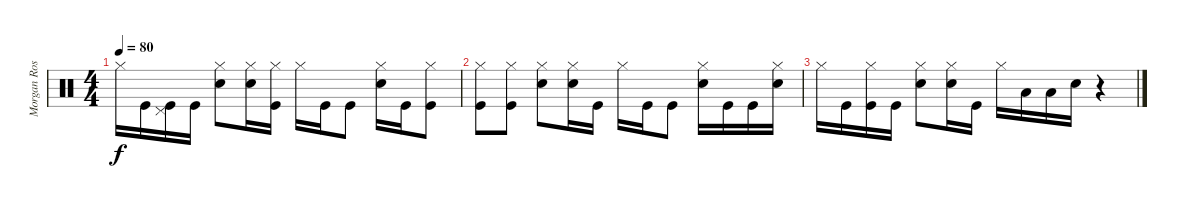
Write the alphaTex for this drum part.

\track ("Morgan Rose" "Morgan Ros") {instrument percussion}
\staff {score}
\articulation defaults
\ts (4 4)
\tempo 80
\clef neutral
\ks c "Hi-Hat (closed)".16{dy f} "Kick (hit)".16
("Pedal Hi-Hat (hit)" "Kick (hit)").16 "Kick (hit)".16 ("Hi-Hat (closed)" "Snare (hit) 2").8 ("Hi-Hat (closed)" "Snare (hit) 2").16 ("Hi-Hat (closed)" "Kick (hit)").16 "Hi-Hat (closed)".16 "Kick (hit)".16 "Kick (hit)".8 ("Hi-Hat (closed)" "Snare (hit) 2").16 "Kick (hit)".16 ("Hi-Hat (closed)" "Kick (hit)").8 |
("Hi-Hat (closed)" "Kick (hit)").8 ("Hi-Hat (closed)" "Kick (hit)").8 ("Hi-Hat (closed)" "Snare (hit) 2").8 ("Hi-Hat (closed)" "Snare (hit) 2").16 "Kick (hit)".16 "Hi-Hat (closed)".16 "Kick (hit)".16 "Kick (hit)".8 ("Hi-Hat (closed)" "Snare (hit) 2").16 "Kick (hit)".16 "Kick (hit)".16 ("Hi-Hat (closed)" "Snare (hit) 2").16 |
"Hi-Hat (closed)".16 "Kick (hit)".16 ("Hi-Hat (closed)" "Kick (hit)").16 "Kick (hit)".16 ("Hi-Hat (closed)" "Snare (hit) 2").8 ("Hi-Hat (closed)" "Snare (hit) 2").16 "Kick (hit)".16 "Hi-Hat (closed)".16 "Low Tom (hit)".16 "Low Tom (hit)".16 "Snare (hit) 2".16 r.4
